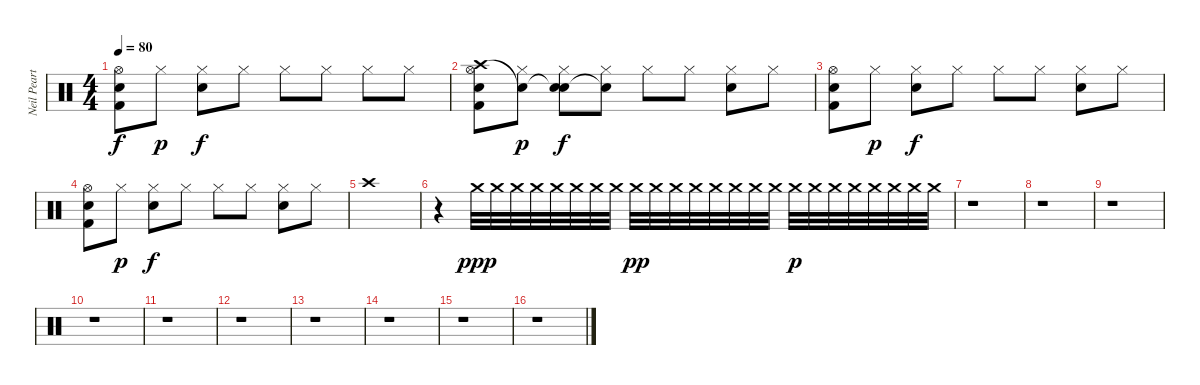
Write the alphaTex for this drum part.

\track ("Neil Peart" "Neil Peart") {instrument percussion}
\staff {score}
\articulation defaults
\ts (4 4)
\tempo 80
\clef neutral
\ks c
("Hi-Hat (open)" "Snare (hit) 2" "Kick (hit) 2").8{dy f} "Hi-Hat (closed)".8{dy p} ("Hi-Hat (closed)" "Snare (hit) 2").8{dy f} "Hi-Hat (closed)".8 "Hi-Hat (closed)".8 "Hi-Hat (closed)".8 "Hi-Hat (closed)".8 "Hi-Hat (closed)".8 |
("Crash high (hit)" "Hi-Hat (open)" "Snare (hit) 2" "Kick (hit) 2").8 ("Snare (hit)"{t} "Hi-Hat (closed)").8{dy p} ("Snare (hit)"{t} "Hi-Hat (closed)" "Snare (hit) 2").8{dy f} ("Snare (hit)"{t} "Hi-Hat (closed)").8 "Hi-Hat (closed)".8 "Hi-Hat (closed)".8 ("Hi-Hat (closed)" "Snare (hit) 2").8 "Hi-Hat (closed)".8 |
("Hi-Hat (open)" "Snare (hit) 2" "Kick (hit) 2").8 "Hi-Hat (closed)".8{dy p} ("Hi-Hat (closed)" "Snare (hit) 2").8{dy f} "Hi-Hat (closed)".8 "Hi-Hat (closed)".8 "Hi-Hat (closed)".8 ("Hi-Hat (closed)" "Snare (hit) 2").8 "Hi-Hat (closed)".8 |
("Hi-Hat (open)" "Snare (hit) 2" "Kick (hit) 2").8 "Hi-Hat (closed)".8{dy p} ("Hi-Hat (closed)" "Snare (hit) 2").8{dy f} "Hi-Hat (closed)".8 "Hi-Hat (closed)".8 "Hi-Hat (closed)".8 ("Hi-Hat (closed)" "Snare (hit) 2").8 "Hi-Hat (closed)".8 |
"Crash high (hit)".1 |
r.4 "Crash medium (hit)".32{dy ppp} "Crash medium (hit)".32 "Crash medium (hit)".32 "Crash medium (hit)".32 "Crash medium (hit)".32 "Crash medium (hit)".32 "Crash medium (hit)".32 "Crash medium (hit)".32 "Crash medium (hit)".32{dy pp} "Crash medium (hit)".32 "Crash medium (hit)".32 "Crash medium (hit)".32 "Crash medium (hit)".32 "Crash medium (hit)".32 "Crash medium (hit)".32 "Crash medium (hit)".32 "Crash medium (hit)".32{dy p} "Crash medium (hit)".32 "Crash medium (hit)".32 "Crash medium (hit)".32 "Crash medium (hit)".32 "Crash medium (hit)".32 "Crash medium (hit)".32 "Crash medium (hit)".32 |
r.1 |
r.1 |
r.1 |
r.1 |
r.1 |
r.1 |
r.1 |
r.1 |
r.1 |
r.1
